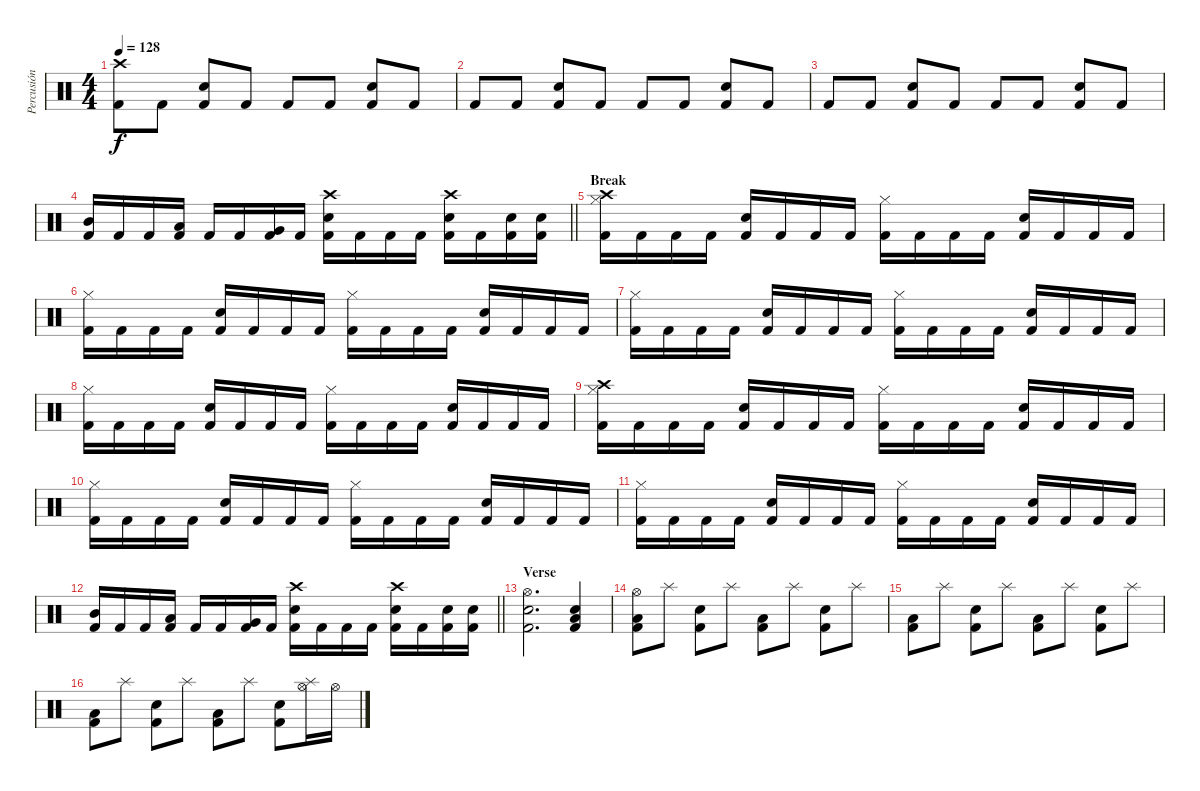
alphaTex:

\track ("Percusión" "Percusión") {instrument percussion}
\staff {score}
\articulation defaults
\ts (4 4)
\tempo 128
\clef neutral
\ks c
("Crash high (hit)" "Kick (hit) 2").8{dy f} "Kick (hit) 2".8 ("Snare (hit) 2" "Kick (hit) 2").8 "Kick (hit) 2".8 "Kick (hit) 2".8 "Kick (hit) 2".8 ("Snare (hit) 2" "Kick (hit) 2").8 "Kick (hit) 2".8 |
"Kick (hit) 2".8 "Kick (hit) 2".8 ("Snare (hit) 2" "Kick (hit) 2").8 "Kick (hit) 2".8 "Kick (hit) 2".8 "Kick (hit) 2".8 ("Snare (hit) 2" "Kick (hit) 2").8 "Kick (hit) 2".8 |
"Kick (hit) 2".8 "Kick (hit) 2".8 ("Snare (hit) 2" "Kick (hit) 2").8 "Kick (hit) 2".8 "Kick (hit) 2".8 "Kick (hit) 2".8 ("Snare (hit) 2" "Kick (hit) 2").8 "Kick (hit) 2".8 |
\barLineRight lightlight
("Mid Tom (hit)" "Kick (hit) 2").16 "Kick (hit) 2".16 "Kick (hit) 2".16 ("Low Tom (hit)" "Kick (hit) 2").16 "Kick (hit) 2".16 "Kick (hit) 2".16 ("Very Low Tom (hit)" "Kick (hit) 2").16 "Kick (hit) 2".16 ("Crash high (hit)" "Snare (hit) 2" "Kick (hit) 2").16 "Kick (hit) 2".16 "Kick (hit) 2".16 "Kick (hit) 2".16 ("Crash high (hit)" "Snare (hit) 2" "Kick (hit) 2").16 "Kick (hit) 2".16 ("Snare (hit) 2" "Kick (hit) 2").16 ("Snare (hit) 2" "Kick (hit) 2").16 |
\section ("" "Break")
("Crash high (hit)" "Hi-Hat (closed)" "Kick (hit) 2").16 "Kick (hit) 2".16 "Kick (hit) 2".16 "Kick (hit) 2".16 ("Snare (hit) 2" "Kick (hit) 2").16 "Kick (hit) 2".16 "Kick (hit) 2".16 "Kick (hit) 2".16 ("Hi-Hat (closed)" "Kick (hit) 2").16 "Kick (hit) 2".16 "Kick (hit) 2".16 "Kick (hit) 2".16 ("Snare (hit) 2" "Kick (hit) 2").16 "Kick (hit) 2".16 "Kick (hit) 2".16 "Kick (hit) 2".16 |
("Hi-Hat (closed)" "Kick (hit) 2").16 "Kick (hit) 2".16 "Kick (hit) 2".16 "Kick (hit) 2".16 ("Snare (hit) 2" "Kick (hit) 2").16 "Kick (hit) 2".16 "Kick (hit) 2".16 "Kick (hit) 2".16 ("Hi-Hat (closed)" "Kick (hit) 2").16 "Kick (hit) 2".16 "Kick (hit) 2".16 "Kick (hit) 2".16 ("Snare (hit) 2" "Kick (hit) 2").16 "Kick (hit) 2".16 "Kick (hit) 2".16 "Kick (hit) 2".16 |
("Hi-Hat (closed)" "Kick (hit) 2").16 "Kick (hit) 2".16 "Kick (hit) 2".16 "Kick (hit) 2".16 ("Snare (hit) 2" "Kick (hit) 2").16 "Kick (hit) 2".16 "Kick (hit) 2".16 "Kick (hit) 2".16 ("Hi-Hat (closed)" "Kick (hit) 2").16 "Kick (hit) 2".16 "Kick (hit) 2".16 "Kick (hit) 2".16 ("Snare (hit) 2" "Kick (hit) 2").16 "Kick (hit) 2".16 "Kick (hit) 2".16 "Kick (hit) 2".16 |
("Hi-Hat (closed)" "Kick (hit) 2").16 "Kick (hit) 2".16 "Kick (hit) 2".16 "Kick (hit) 2".16 ("Snare (hit) 2" "Kick (hit) 2").16 "Kick (hit) 2".16 "Kick (hit) 2".16 "Kick (hit) 2".16 ("Hi-Hat (closed)" "Kick (hit) 2").16 "Kick (hit) 2".16 "Kick (hit) 2".16 "Kick (hit) 2".16 ("Snare (hit) 2" "Kick (hit) 2").16 "Kick (hit) 2".16 "Kick (hit) 2".16 "Kick (hit) 2".16 |
("Crash high (hit)" "Hi-Hat (closed)" "Kick (hit) 2").16 "Kick (hit) 2".16 "Kick (hit) 2".16 "Kick (hit) 2".16 ("Snare (hit) 2" "Kick (hit) 2").16 "Kick (hit) 2".16 "Kick (hit) 2".16 "Kick (hit) 2".16 ("Hi-Hat (closed)" "Kick (hit) 2").16 "Kick (hit) 2".16 "Kick (hit) 2".16 "Kick (hit) 2".16 ("Snare (hit) 2" "Kick (hit) 2").16 "Kick (hit) 2".16 "Kick (hit) 2".16 "Kick (hit) 2".16 |
("Hi-Hat (closed)" "Kick (hit) 2").16 "Kick (hit) 2".16 "Kick (hit) 2".16 "Kick (hit) 2".16 ("Snare (hit) 2" "Kick (hit) 2").16 "Kick (hit) 2".16 "Kick (hit) 2".16 "Kick (hit) 2".16 ("Hi-Hat (closed)" "Kick (hit) 2").16 "Kick (hit) 2".16 "Kick (hit) 2".16 "Kick (hit) 2".16 ("Snare (hit) 2" "Kick (hit) 2").16 "Kick (hit) 2".16 "Kick (hit) 2".16 "Kick (hit) 2".16 |
("Hi-Hat (closed)" "Kick (hit) 2").16 "Kick (hit) 2".16 "Kick (hit) 2".16 "Kick (hit) 2".16 ("Snare (hit) 2" "Kick (hit) 2").16 "Kick (hit) 2".16 "Kick (hit) 2".16 "Kick (hit) 2".16 ("Hi-Hat (closed)" "Kick (hit) 2").16 "Kick (hit) 2".16 "Kick (hit) 2".16 "Kick (hit) 2".16 ("Snare (hit) 2" "Kick (hit) 2").16 "Kick (hit) 2".16 "Kick (hit) 2".16 "Kick (hit) 2".16 |
\barLineRight lightlight
("Mid Tom (hit)" "Kick (hit) 2").16 "Kick (hit) 2".16 "Kick (hit) 2".16 ("Low Tom (hit)" "Kick (hit) 2").16 "Kick (hit) 2".16 "Kick (hit) 2".16 ("Very Low Tom (hit)" "Kick (hit) 2").16 "Kick (hit) 2".16 ("Crash high (hit)" "Snare (hit) 2" "Kick (hit) 2").16 "Kick (hit) 2".16 "Kick (hit) 2".16 "Kick (hit) 2".16 ("Crash high (hit)" "Snare (hit) 2" "Kick (hit) 2").16 "Kick (hit) 2".16 ("Snare (hit) 2" "Kick (hit) 2").16 ("Snare (hit) 2" "Kick (hit) 2").16 |
\section ("" "Verse")
("Hi-Hat (open)" "Snare (hit) 2" "Kick (hit) 2").2{d} ("Low Tom (hit)" "Snare (hit) 2" "Kick (hit) 2").4 |
("Hi-Hat (open)" "Low Floor Tom (hit)" "Kick (hit) 2").8 "Splash (hit)".8 ("Snare (hit) 2" "Kick (hit) 2").8 "Splash (hit)".8 ("Low Floor Tom (hit)" "Kick (hit) 2").8 "Splash (hit)".8 ("Snare (hit) 2" "Kick (hit) 2").8 "Splash (hit)".8 |
("Low Floor Tom (hit)" "Kick (hit) 2").8 "Splash (hit)".8 ("Snare (hit) 2" "Kick (hit) 2").8 "Splash (hit)".8 ("Low Floor Tom (hit)" "Kick (hit) 2").8 "Splash (hit)".8 ("Snare (hit) 2" "Kick (hit) 2").8 "Splash (hit)".8 |
("Low Floor Tom (hit)" "Kick (hit) 2").8 "Splash (hit)".8 ("Snare (hit) 2" "Kick (hit) 2").8 "Splash (hit)".8 ("Low Floor Tom (hit)" "Kick (hit) 2").8 "Splash (hit)".8 ("Snare (hit) 2" "Kick (hit) 2").8 ("Hi-Hat (open)" "Splash (hit)").16 "Hi-Hat (open)".16
